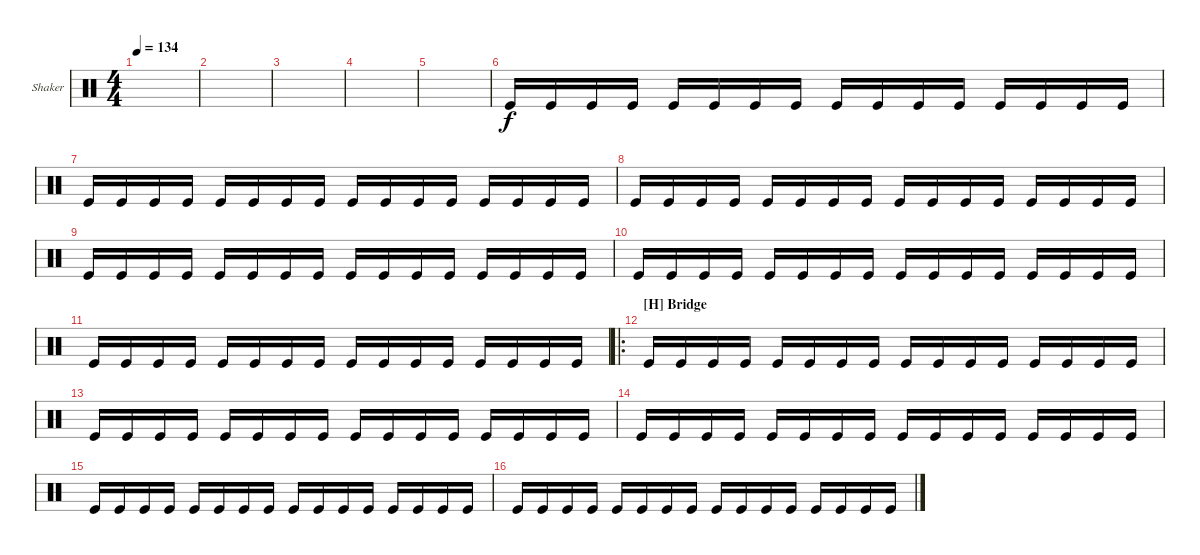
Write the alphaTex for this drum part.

\defaultSystemsLayout 4
\bracketExtendMode groupsimilarinstruments
\firstSystemTrackNameOrientation horizontal
\otherSystemsTrackNameOrientation horizontal
\track ("Shaker" "Shaker") {instrument percussion}
\staff {score}
\articulation defaults
\ts (4 4)
\tempo 134
\clef neutral
\ks c
|
|
|
|
|
"Kick (hit)".16 "Kick (hit)".16 "Kick (hit)".16 "Kick (hit)".16 "Kick (hit)".16 "Kick (hit)".16 "Kick (hit)".16 "Kick (hit)".16 "Kick (hit)".16 "Kick (hit)".16 "Kick (hit)".16 "Kick (hit)".16 "Kick (hit)".16 "Kick (hit)".16 "Kick (hit)".16 "Kick (hit)".16 |
"Kick (hit)".16 "Kick (hit)".16 "Kick (hit)".16 "Kick (hit)".16 "Kick (hit)".16 "Kick (hit)".16 "Kick (hit)".16 "Kick (hit)".16 "Kick (hit)".16 "Kick (hit)".16 "Kick (hit)".16 "Kick (hit)".16 "Kick (hit)".16 "Kick (hit)".16 "Kick (hit)".16 "Kick (hit)".16 |
"Kick (hit)".16 "Kick (hit)".16 "Kick (hit)".16 "Kick (hit)".16 "Kick (hit)".16 "Kick (hit)".16 "Kick (hit)".16 "Kick (hit)".16 "Kick (hit)".16 "Kick (hit)".16 "Kick (hit)".16 "Kick (hit)".16 "Kick (hit)".16 "Kick (hit)".16 "Kick (hit)".16 "Kick (hit)".16 |
"Kick (hit)".16 "Kick (hit)".16 "Kick (hit)".16 "Kick (hit)".16 "Kick (hit)".16 "Kick (hit)".16 "Kick (hit)".16 "Kick (hit)".16 "Kick (hit)".16 "Kick (hit)".16 "Kick (hit)".16 "Kick (hit)".16 "Kick (hit)".16 "Kick (hit)".16 "Kick (hit)".16 "Kick (hit)".16 |
"Kick (hit)".16 "Kick (hit)".16 "Kick (hit)".16 "Kick (hit)".16 "Kick (hit)".16 "Kick (hit)".16 "Kick (hit)".16 "Kick (hit)".16 "Kick (hit)".16 "Kick (hit)".16 "Kick (hit)".16 "Kick (hit)".16 "Kick (hit)".16 "Kick (hit)".16 "Kick (hit)".16 "Kick (hit)".16 |
"Kick (hit)".16 "Kick (hit)".16 "Kick (hit)".16 "Kick (hit)".16 "Kick (hit)".16 "Kick (hit)".16 "Kick (hit)".16 "Kick (hit)".16 "Kick (hit)".16 "Kick (hit)".16 "Kick (hit)".16 "Kick (hit)".16 "Kick (hit)".16 "Kick (hit)".16 "Kick (hit)".16 "Kick (hit)".16 |
\ro
\section ("H" "Bridge")
"Kick (hit)".16 "Kick (hit)".16 "Kick (hit)".16 "Kick (hit)".16 "Kick (hit)".16 "Kick (hit)".16 "Kick (hit)".16 "Kick (hit)".16 "Kick (hit)".16 "Kick (hit)".16 "Kick (hit)".16 "Kick (hit)".16 "Kick (hit)".16 "Kick (hit)".16 "Kick (hit)".16 "Kick (hit)".16 |
"Kick (hit)".16 "Kick (hit)".16 "Kick (hit)".16 "Kick (hit)".16 "Kick (hit)".16 "Kick (hit)".16 "Kick (hit)".16 "Kick (hit)".16 "Kick (hit)".16 "Kick (hit)".16 "Kick (hit)".16 "Kick (hit)".16 "Kick (hit)".16 "Kick (hit)".16 "Kick (hit)".16 "Kick (hit)".16 |
"Kick (hit)".16 "Kick (hit)".16 "Kick (hit)".16 "Kick (hit)".16 "Kick (hit)".16 "Kick (hit)".16 "Kick (hit)".16 "Kick (hit)".16 "Kick (hit)".16 "Kick (hit)".16 "Kick (hit)".16 "Kick (hit)".16 "Kick (hit)".16 "Kick (hit)".16 "Kick (hit)".16 "Kick (hit)".16 |
"Kick (hit)".16 "Kick (hit)".16 "Kick (hit)".16 "Kick (hit)".16 "Kick (hit)".16 "Kick (hit)".16 "Kick (hit)".16 "Kick (hit)".16 "Kick (hit)".16 "Kick (hit)".16 "Kick (hit)".16 "Kick (hit)".16 "Kick (hit)".16 "Kick (hit)".16 "Kick (hit)".16 "Kick (hit)".16 |
"Kick (hit)".16 "Kick (hit)".16 "Kick (hit)".16 "Kick (hit)".16 "Kick (hit)".16 "Kick (hit)".16 "Kick (hit)".16 "Kick (hit)".16 "Kick (hit)".16 "Kick (hit)".16 "Kick (hit)".16 "Kick (hit)".16 "Kick (hit)".16 "Kick (hit)".16 "Kick (hit)".16 "Kick (hit)".16
